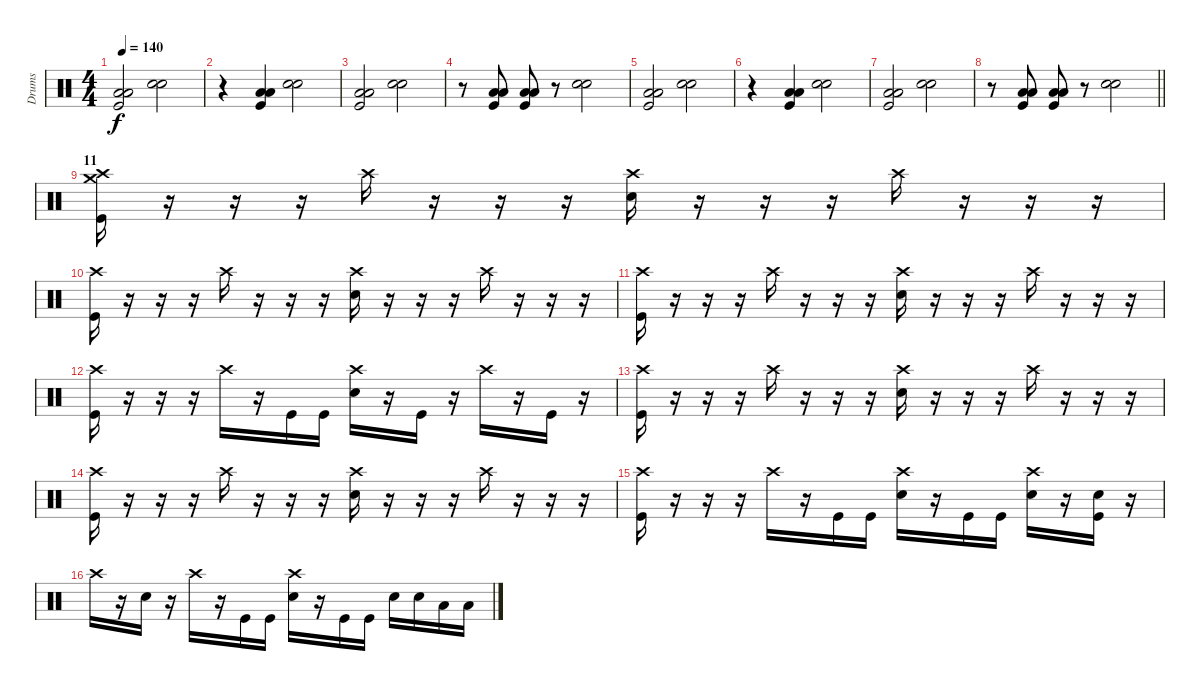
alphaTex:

\track ("Drums" "Drums") {instrument percussion}
\staff {score}
\articulation defaults
\ts (4 4)
\tempo 140
\clef neutral
\ks c
("Kick (hit)" "Low Tom (hit)" "Low Floor Tom (hit)").2{dy f} ("Snare (hit) 2" "Snare (hit) 2").2 |
r.4 ("Kick (hit)" "Low Floor Tom (hit)" "Low Tom (hit)").4 ("Snare (hit) 2" "Snare (hit) 2").2 |
("Kick (hit)" "Low Tom (hit)" "Low Floor Tom (hit)").2 ("Snare (hit) 2" "Snare (hit) 2").2 |
r.8 ("Kick (hit)" "Low Floor Tom (hit)" "Low Tom (hit)").8 ("Kick (hit)" "Low Floor Tom (hit)" "Low Tom (hit)").8 r.8 ("Snare (hit) 2" "Snare (hit) 2").2 |
("Kick (hit)" "Low Tom (hit)" "Low Floor Tom (hit)").2 ("Snare (hit) 2" "Snare (hit) 2").2 |
r.4 ("Kick (hit)" "Low Floor Tom (hit)" "Low Tom (hit)").4 ("Snare (hit) 2" "Snare (hit) 2").2 |
("Kick (hit)" "Low Tom (hit)" "Low Floor Tom (hit)").2 ("Snare (hit) 2" "Snare (hit) 2").2 |
\barLineRight lightlight
r.8 ("Kick (hit)" "Low Floor Tom (hit)" "Low Tom (hit)").8 ("Kick (hit)" "Low Floor Tom (hit)" "Low Tom (hit)").8 r.8 ("Snare (hit) 2" "Snare (hit) 2").2 |
\section ("" "11")
("Kick (hit)" "Crash high (hit)" "Crash medium (hit)").16 r.16 r.16 r.16 "Crash high (hit)".16 r.16 r.16 r.16 ("Snare (hit) 2" "Crash high (hit)").16 r.16 r.16 r.16 "Crash high (hit)".16 r.16 r.16 r.16 |
("Kick (hit)" "Crash high (hit)").16 r.16 r.16 r.16 "Crash high (hit)".16 r.16 r.16 r.16 ("Snare (hit) 2" "Crash high (hit)").16 r.16 r.16 r.16 "Crash high (hit)".16 r.16 r.16 r.16 |
("Kick (hit)" "Crash high (hit)").16 r.16 r.16 r.16 "Crash high (hit)".16 r.16 r.16 r.16 ("Snare (hit) 2" "Crash high (hit)").16 r.16 r.16 r.16 "Crash high (hit)".16 r.16 r.16 r.16 |
("Kick (hit)" "Crash high (hit)").16 r.16 r.16 r.16 "Crash high (hit)".16 r.16 "Kick (hit)".16 "Kick (hit)".16 ("Snare (hit) 2" "Crash high (hit)").16 r.16 "Kick (hit)".16 r.16 "Crash high (hit)".16 r.16 "Kick (hit)".16 r.16 |
("Kick (hit)" "Crash high (hit)").16 r.16 r.16 r.16 "Crash high (hit)".16 r.16 r.16 r.16 ("Snare (hit) 2" "Crash high (hit)").16 r.16 r.16 r.16 "Crash high (hit)".16 r.16 r.16 r.16 |
("Kick (hit)" "Crash high (hit)").16 r.16 r.16 r.16 "Crash high (hit)".16 r.16 r.16 r.16 ("Snare (hit) 2" "Crash high (hit)").16 r.16 r.16 r.16 "Crash high (hit)".16 r.16 r.16 r.16 |
("Kick (hit)" "Crash high (hit)").16 r.16 r.16 r.16 "Crash high (hit)".16 r.16 "Kick (hit)".16 "Kick (hit)".16 ("Snare (hit) 2" "Crash high (hit)").16 r.16 "Kick (hit)".16 "Kick (hit)".16 ("Snare (hit) 2" "Crash high (hit)").16 r.16 ("Kick (hit)" "Snare (hit) 2").16 r.16 |
"Crash high (hit)".16 r.16 "Snare (hit) 2".16 r.16 "Crash high (hit)".16 r.16 "Kick (hit)".16 "Kick (hit)".16 ("Snare (hit) 2" "Crash high (hit)").16 r.16 "Kick (hit)".16 "Kick (hit)".16 "Snare (hit) 2".16 "Snare (hit) 2".16 "Low Tom (hit)".16 "Low Tom (hit)".16
